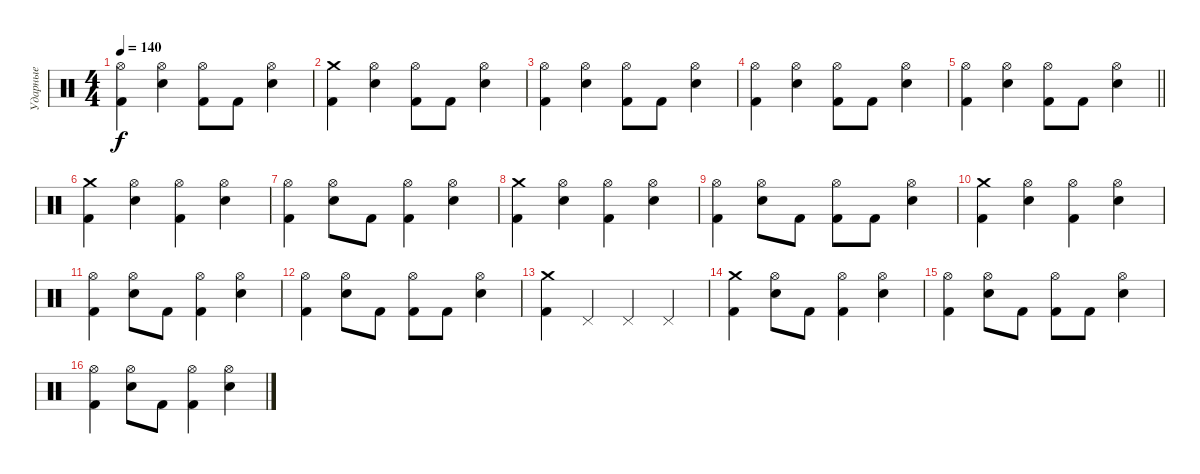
\track ("Ударные" "Ударные") {instrument percussion}
\staff {score}
\articulation defaults
\ts (4 4)
\tempo 140
\clef neutral
\ks c
("Hi-Hat (open)" "Kick (hit) 2").4{dy f} ("Hi-Hat (open)" "Snare (hit) 2").4 ("Hi-Hat (open)" "Kick (hit) 2").8 "Kick (hit) 2".8 ("Snare (hit) 2" "Hi-Hat (open)").4 |
("Crash medium (hit)" "Kick (hit) 2").4 ("Hi-Hat (open)" "Snare (hit) 2").4 ("Hi-Hat (open)" "Kick (hit) 2").8 "Kick (hit) 2".8 ("Snare (hit) 2" "Hi-Hat (open)").4 |
("Hi-Hat (open)" "Kick (hit) 2").4 ("Hi-Hat (open)" "Snare (hit) 2").4 ("Hi-Hat (open)" "Kick (hit) 2").8 "Kick (hit) 2".8 ("Snare (hit) 2" "Hi-Hat (open)").4 |
("Hi-Hat (open)" "Kick (hit) 2").4 ("Hi-Hat (open)" "Snare (hit) 2").4 ("Hi-Hat (open)" "Kick (hit) 2").8 "Kick (hit) 2".8 ("Snare (hit) 2" "Hi-Hat (open)").4 |
\barLineRight lightlight
("Hi-Hat (open)" "Kick (hit) 2").4 ("Hi-Hat (open)" "Snare (hit) 2").4 ("Hi-Hat (open)" "Kick (hit) 2").8 "Kick (hit) 2".8 ("Snare (hit) 2" "Hi-Hat (open)").4 |
("Crash medium (hit)" "Kick (hit) 2").4 ("Hi-Hat (open)" "Snare (hit) 2").4 ("Hi-Hat (open)" "Kick (hit) 2").4 ("Snare (hit) 2" "Hi-Hat (open)").4 |
("Hi-Hat (open)" "Kick (hit) 2").4 ("Hi-Hat (open)" "Snare (hit) 2").8 "Kick (hit) 2".8 ("Hi-Hat (open)" "Kick (hit) 2").4 ("Snare (hit) 2" "Hi-Hat (open)").4 |
("Crash medium (hit)" "Kick (hit) 2").4 ("Hi-Hat (open)" "Snare (hit) 2").4 ("Hi-Hat (open)" "Kick (hit) 2").4 ("Snare (hit) 2" "Hi-Hat (open)").4 |
("Hi-Hat (open)" "Kick (hit) 2").4 ("Hi-Hat (open)" "Snare (hit) 2").8 "Kick (hit) 2".8 ("Hi-Hat (open)" "Kick (hit) 2").8 "Kick (hit) 2".8 ("Hi-Hat (open)" "Snare (hit) 2").4 |
("Crash medium (hit)" "Kick (hit) 2").4 ("Hi-Hat (open)" "Snare (hit) 2").4 ("Hi-Hat (open)" "Kick (hit) 2").4 ("Snare (hit) 2" "Hi-Hat (open)").4 |
("Hi-Hat (open)" "Kick (hit) 2").4 ("Hi-Hat (open)" "Snare (hit) 2").8 "Kick (hit) 2".8 ("Hi-Hat (open)" "Kick (hit) 2").4 ("Snare (hit) 2" "Hi-Hat (open)").4 |
("Hi-Hat (open)" "Kick (hit) 2").4 ("Hi-Hat (open)" "Snare (hit) 2").8 "Kick (hit) 2".8 ("Hi-Hat (open)" "Kick (hit) 2").8 "Kick (hit) 2".8 ("Hi-Hat (open)" "Snare (hit) 2").4 |
("Crash medium (hit)" "Kick (hit) 2").4 "Pedal Hi-Hat (hit)".4 "Pedal Hi-Hat (hit)".4 "Pedal Hi-Hat (hit)".4 |
("Kick (hit) 2" "Crash medium (hit)").4 ("Hi-Hat (open)" "Snare (hit) 2").8 "Kick (hit) 2".8 ("Hi-Hat (open)" "Kick (hit) 2").4 ("Snare (hit) 2" "Hi-Hat (open)").4 |
("Hi-Hat (open)" "Kick (hit) 2").4 ("Hi-Hat (open)" "Snare (hit) 2").8 "Kick (hit) 2".8 ("Kick (hit) 2" "Hi-Hat (open)").8 "Kick (hit) 2".8 ("Snare (hit) 2" "Hi-Hat (open)").4 |
("Kick (hit) 2" "Hi-Hat (open)").4 ("Hi-Hat (open)" "Snare (hit) 2").8 "Kick (hit) 2".8 ("Hi-Hat (open)" "Kick (hit) 2").4 ("Snare (hit) 2" "Hi-Hat (open)").4
